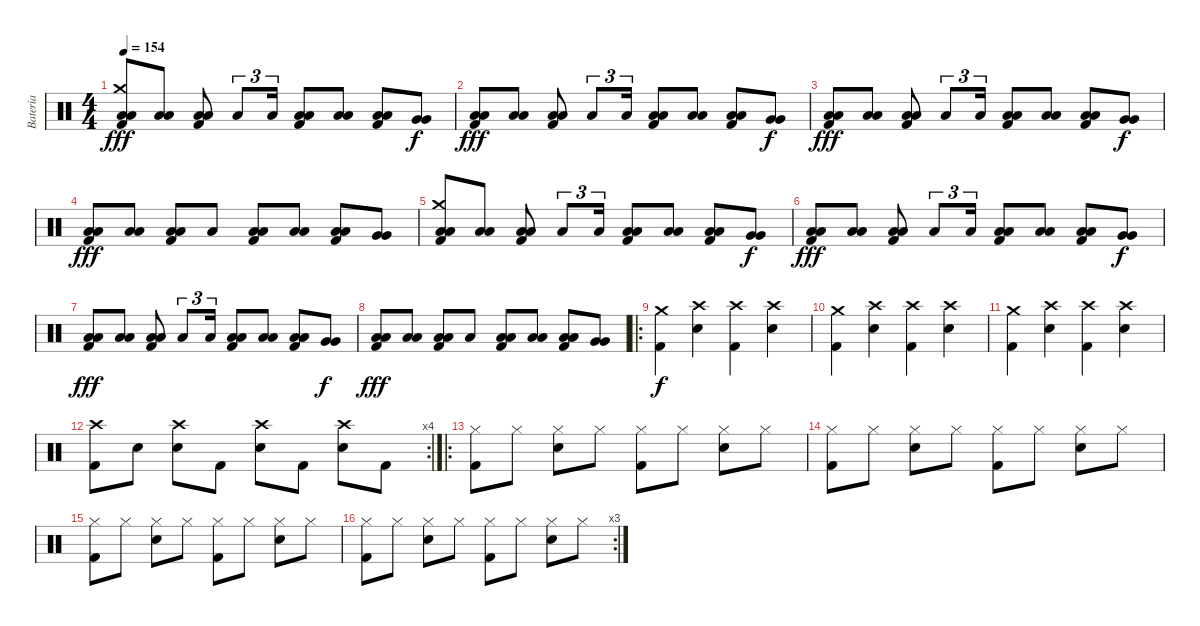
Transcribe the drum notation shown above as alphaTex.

\track ("Bateria" "Bateria") {instrument percussion}
\staff {score}
\articulation defaults
\ts (4 4)
\tempo 154
\clef neutral
\ks c
("Kick (hit) 2" "Crash medium (hit)" "Low Floor Tom (hit)" "Low Floor Tom (hit)").8{dy fff} ("Low Floor Tom (hit)" "Low Floor Tom (hit)").8 ("Kick (hit) 2" "Low Floor Tom (hit)" "Low Floor Tom (hit)").8 "Low Floor Tom (hit)".8{tu (3 2)} "Low Floor Tom (hit)".16{tu (3 2)} ("Kick (hit) 2" "Low Floor Tom (hit)" "Low Floor Tom (hit)").8 ("Low Floor Tom (hit)" "Low Floor Tom (hit)").8 ("Kick (hit) 2" "Low Floor Tom (hit)" "Low Floor Tom (hit)").8 ("Very Low Tom (hit)" "Very Low Tom (hit)").8{dy f} |
("Kick (hit) 2" "Low Floor Tom (hit)" "Low Floor Tom (hit)").8{dy fff} ("Low Floor Tom (hit)" "Low Floor Tom (hit)").8 ("Kick (hit) 2" "Low Floor Tom (hit)" "Low Floor Tom (hit)").8 "Low Floor Tom (hit)".8{tu (3 2)} "Low Floor Tom (hit)".16{tu (3 2)} ("Kick (hit) 2" "Low Floor Tom (hit)" "Low Floor Tom (hit)").8 ("Low Floor Tom (hit)" "Low Floor Tom (hit)").8 ("Kick (hit) 2" "Low Floor Tom (hit)" "Low Floor Tom (hit)").8 ("Very Low Tom (hit)" "Very Low Tom (hit)").8{dy f} |
("Kick (hit) 2" "Low Floor Tom (hit)" "Low Floor Tom (hit)").8{dy fff} ("Low Floor Tom (hit)" "Low Floor Tom (hit)").8 ("Kick (hit) 2" "Low Floor Tom (hit)" "Low Floor Tom (hit)").8 "Low Floor Tom (hit)".8{tu (3 2)} "Low Floor Tom (hit)".16{tu (3 2)} ("Kick (hit) 2" "Low Floor Tom (hit)" "Low Floor Tom (hit)").8 ("Low Floor Tom (hit)" "Low Floor Tom (hit)").8 ("Kick (hit) 2" "Low Floor Tom (hit)" "Low Floor Tom (hit)").8 ("Very Low Tom (hit)" "Very Low Tom (hit)").8{dy f} |
("Kick (hit) 2" "Low Floor Tom (hit)" "Low Floor Tom (hit)").8{dy fff} ("Low Floor Tom (hit)" "Low Floor Tom (hit)").8 ("Kick (hit) 2" "Low Floor Tom (hit)" "Low Floor Tom (hit)").8 "Low Floor Tom (hit)".8 ("Kick (hit) 2" "Low Floor Tom (hit)" "Low Floor Tom (hit)").8 ("Low Floor Tom (hit)" "Low Floor Tom (hit)").8 ("Kick (hit) 2" "Low Floor Tom (hit)" "Low Floor Tom (hit)").8 ("Very Low Tom (hit)" "Very Low Tom (hit)").8 |
("Kick (hit) 2" "Crash medium (hit)" "Low Floor Tom (hit)" "Low Floor Tom (hit)").8 ("Low Floor Tom (hit)" "Low Floor Tom (hit)").8 ("Kick (hit) 2" "Low Floor Tom (hit)" "Low Floor Tom (hit)").8 "Low Floor Tom (hit)".8{tu (3 2)} "Low Floor Tom (hit)".16{tu (3 2)} ("Kick (hit) 2" "Low Floor Tom (hit)" "Low Floor Tom (hit)").8 ("Low Floor Tom (hit)" "Low Floor Tom (hit)").8 ("Kick (hit) 2" "Low Floor Tom (hit)" "Low Floor Tom (hit)").8 ("Very Low Tom (hit)" "Very Low Tom (hit)").8{dy f} |
("Kick (hit) 2" "Low Floor Tom (hit)" "Low Floor Tom (hit)").8{dy fff} ("Low Floor Tom (hit)" "Low Floor Tom (hit)").8 ("Kick (hit) 2" "Low Floor Tom (hit)" "Low Floor Tom (hit)").8 "Low Floor Tom (hit)".8{tu (3 2)} "Low Floor Tom (hit)".16{tu (3 2)} ("Kick (hit) 2" "Low Floor Tom (hit)" "Low Floor Tom (hit)").8 ("Low Floor Tom (hit)" "Low Floor Tom (hit)").8 ("Kick (hit) 2" "Low Floor Tom (hit)" "Low Floor Tom (hit)").8 ("Very Low Tom (hit)" "Very Low Tom (hit)").8{dy f} |
("Kick (hit) 2" "Low Floor Tom (hit)" "Low Floor Tom (hit)").8{dy fff} ("Low Floor Tom (hit)" "Low Floor Tom (hit)").8 ("Kick (hit) 2" "Low Floor Tom (hit)" "Low Floor Tom (hit)").8 "Low Floor Tom (hit)".8{tu (3 2)} "Low Floor Tom (hit)".16{tu (3 2)} ("Kick (hit) 2" "Low Floor Tom (hit)" "Low Floor Tom (hit)").8 ("Low Floor Tom (hit)" "Low Floor Tom (hit)").8 ("Kick (hit) 2" "Low Floor Tom (hit)" "Low Floor Tom (hit)").8 ("Very Low Tom (hit)" "Very Low Tom (hit)").8{dy f} |
("Kick (hit) 2" "Low Floor Tom (hit)" "Low Floor Tom (hit)").8{dy fff} ("Low Floor Tom (hit)" "Low Floor Tom (hit)").8 ("Kick (hit) 2" "Low Floor Tom (hit)" "Low Floor Tom (hit)").8 "Low Floor Tom (hit)".8 ("Kick (hit) 2" "Low Floor Tom (hit)" "Low Floor Tom (hit)").8 ("Low Floor Tom (hit)" "Low Floor Tom (hit)").8 ("Kick (hit) 2" "Low Floor Tom (hit)" "Low Floor Tom (hit)").8 ("Very Low Tom (hit)" "Very Low Tom (hit)").8 |
\ro
("Kick (hit) 2" "Crash medium (hit)").4{dy f} ("Crash high (hit)" "Snare (hit) 2").4 ("Kick (hit) 2" "Crash high (hit)").4 ("Crash high (hit)" "Snare (hit) 2").4 |
("Kick (hit) 2" "Crash medium (hit)").4 ("Crash high (hit)" "Snare (hit) 2").4 ("Kick (hit) 2" "Crash high (hit)").4 ("Crash high (hit)" "Snare (hit) 2").4 |
("Kick (hit) 2" "Crash medium (hit)").4 ("Crash high (hit)" "Snare (hit) 2").4 ("Kick (hit) 2" "Crash high (hit)").4 ("Crash high (hit)" "Snare (hit) 2").4 |
\rc 4
("Kick (hit) 2" "Crash high (hit)").8 "Snare (hit) 2".8 ("Crash high (hit)" "Snare (hit) 2").8 "Kick (hit) 2".8 ("Crash high (hit)" "Snare (hit) 2").8 "Kick (hit) 2".8 ("Crash high (hit)" "Snare (hit) 2").8 "Kick (hit) 2".8 |
\ro
("Kick (hit) 2" "Hi-Hat (closed)").8 "Hi-Hat (closed)".8 ("Hi-Hat (closed)" "Snare (hit) 2").8 "Hi-Hat (closed)".8 ("Kick (hit) 2" "Hi-Hat (closed)").8 "Hi-Hat (closed)".8 ("Hi-Hat (closed)" "Snare (hit) 2").8 "Hi-Hat (closed)".8 |
("Kick (hit) 2" "Hi-Hat (closed)").8 "Hi-Hat (closed)".8 ("Hi-Hat (closed)" "Snare (hit) 2").8 "Hi-Hat (closed)".8 ("Kick (hit) 2" "Hi-Hat (closed)").8 "Hi-Hat (closed)".8 ("Hi-Hat (closed)" "Snare (hit) 2").8 "Hi-Hat (closed)".8 |
("Kick (hit) 2" "Hi-Hat (closed)").8 "Hi-Hat (closed)".8 ("Hi-Hat (closed)" "Snare (hit) 2").8 "Hi-Hat (closed)".8 ("Kick (hit) 2" "Hi-Hat (closed)").8 "Hi-Hat (closed)".8 ("Hi-Hat (closed)" "Snare (hit) 2").8 "Hi-Hat (closed)".8 |
\rc 3
("Kick (hit) 2" "Hi-Hat (closed)").8 "Hi-Hat (closed)".8 ("Hi-Hat (closed)" "Snare (hit) 2").8 "Hi-Hat (closed)".8 ("Kick (hit) 2" "Hi-Hat (closed)").8 "Hi-Hat (closed)".8 ("Hi-Hat (closed)" "Snare (hit) 2").8 "Hi-Hat (closed)".8
